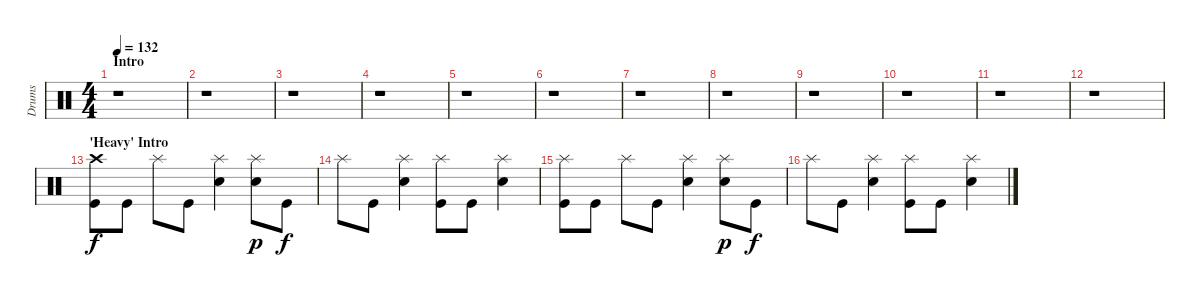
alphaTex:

\track ("Drums" "Drums") {instrument percussion}
\staff {score}
\articulation defaults
\ts (4 4)
\section ("" "Intro")
\tempo 132
\clef neutral
\ks c
r.1{dy f} |
r.1 |
r.1 |
r.1 |
r.1 |
r.1 |
r.1 |
r.1 |
r.1 |
r.1 |
r.1 |
r.1 |
\section ("" "'Heavy' Intro")
("Crash high (hit)" "Kick (hit)").8 "Kick (hit)".8 "Splash (hit)".8 "Kick (hit)".8 ("Snare (hit) 2" "Splash (hit)").4 ("Snare (hit) 2" "Splash (hit)").8{dy p} "Kick (hit)".8{dy f} |
"Splash (hit)".8 "Kick (hit)".8 ("Snare (hit) 2" "Splash (hit)").4 ("Splash (hit)" "Kick (hit)").8 "Kick (hit)".8 ("Snare (hit) 2" "Splash (hit)").4 |
("Splash (hit)" "Kick (hit)").8 "Kick (hit)".8 "Splash (hit)".8 "Kick (hit)".8 ("Snare (hit) 2" "Splash (hit)").4 ("Snare (hit) 2" "Splash (hit)").8{dy p} "Kick (hit)".8{dy f} |
"Splash (hit)".8 "Kick (hit)".8 ("Snare (hit) 2" "Splash (hit)").4 ("Splash (hit)" "Kick (hit)").8 "Kick (hit)".8 ("Snare (hit) 2" "Splash (hit)").4
